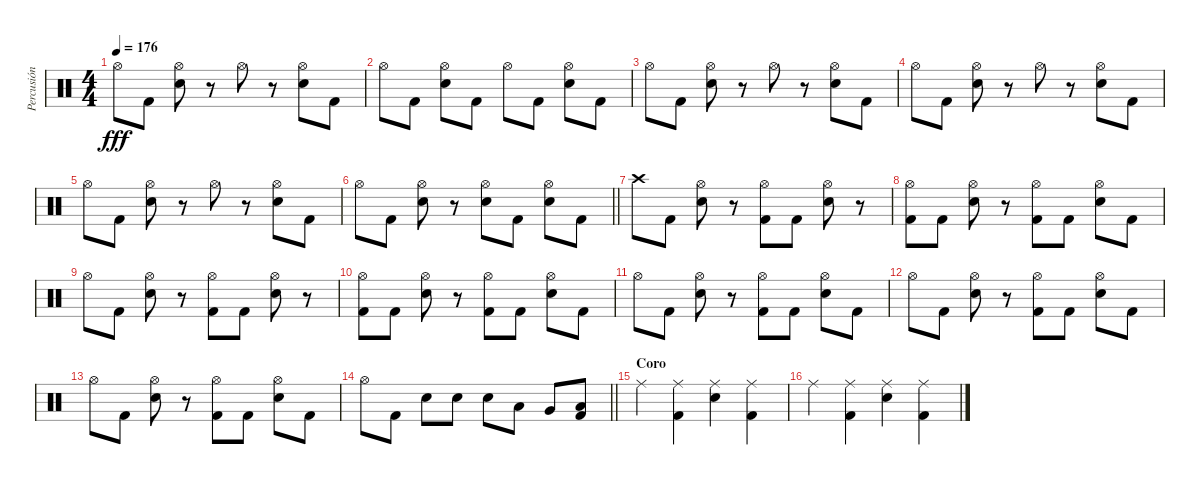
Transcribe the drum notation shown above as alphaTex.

\track ("Percusión" "Percusión") {instrument percussion}
\staff {score}
\articulation defaults
\ts (4 4)
\tempo 176
\clef neutral
\ks c "Hi-Hat (open)".8{dy fff} "Kick (hit) 2".8
("Hi-Hat (open)" "Electric Snare (hit)").8 r.8 "Hi-Hat (open)".8 r.8 ("Hi-Hat (open)" "Electric Snare (hit)").8 "Kick (hit) 2".8 |
"Hi-Hat (open)".8 "Kick (hit) 2".8 ("Hi-Hat (open)" "Electric Snare (hit)").8 "Kick (hit) 2".8 "Hi-Hat (open)".8 "Kick (hit) 2".8 ("Hi-Hat (open)" "Electric Snare (hit)").8 "Kick (hit) 2".8 |
"Hi-Hat (open)".8 "Kick (hit) 2".8 ("Hi-Hat (open)" "Electric Snare (hit)").8 r.8 "Hi-Hat (open)".8 r.8 ("Hi-Hat (open)" "Electric Snare (hit)").8 "Kick (hit) 2".8 |
"Hi-Hat (open)".8 "Kick (hit) 2".8 ("Hi-Hat (open)" "Electric Snare (hit)").8 r.8 "Hi-Hat (open)".8 r.8 ("Hi-Hat (open)" "Electric Snare (hit)").8 "Kick (hit) 2".8 |
"Hi-Hat (open)".8 "Kick (hit) 2".8 ("Hi-Hat (open)" "Electric Snare (hit)").8 r.8 "Hi-Hat (open)".8 r.8 ("Hi-Hat (open)" "Electric Snare (hit)").8 "Kick (hit) 2".8 |
\barLineRight lightlight "Hi-Hat (open)".8 "Kick (hit) 2".8
("Hi-Hat (open)" "Electric Snare (hit)").8 r.8 ("Hi-Hat (open)" "Electric Snare (hit)").8 "Kick (hit) 2".8 ("Hi-Hat (open)" "Electric Snare (hit)").8 "Kick (hit) 2".8 |
"Crash high (hit)".8 "Kick (hit) 2".8 ("Hi-Hat (open)" "Electric Snare (hit)").8 r.8 ("Hi-Hat (open)" "Kick (hit) 2").8 "Kick (hit) 2".8 ("Hi-Hat (open)" "Electric Snare (hit)").8 r.8 |
("Hi-Hat (open)" "Kick (hit) 2").8 "Kick (hit) 2".8 ("Hi-Hat (open)" "Electric Snare (hit)").8 r.8 ("Hi-Hat (open)" "Kick (hit) 2").8 "Kick (hit) 2".8 ("Hi-Hat (open)" "Electric Snare (hit)").8 "Kick (hit) 2".8 |
"Hi-Hat (open)".8 "Kick (hit) 2".8 ("Hi-Hat (open)" "Electric Snare (hit)").8 r.8 ("Hi-Hat (open)" "Kick (hit) 2").8 "Kick (hit) 2".8 ("Hi-Hat (open)" "Electric Snare (hit)").8 r.8 |
("Hi-Hat (open)" "Kick (hit) 2").8 "Kick (hit) 2".8 ("Hi-Hat (open)" "Electric Snare (hit)").8 r.8 ("Hi-Hat (open)" "Kick (hit) 2").8 "Kick (hit) 2".8 ("Hi-Hat (open)" "Electric Snare (hit)").8 "Kick (hit) 2".8 |
"Hi-Hat (open)".8 "Kick (hit) 2".8 ("Hi-Hat (open)" "Electric Snare (hit)").8 r.8 ("Hi-Hat (open)" "Kick (hit) 2").8 "Kick (hit) 2".8 ("Hi-Hat (open)" "Electric Snare (hit)").8 "Kick (hit) 2".8 |
"Hi-Hat (open)".8 "Kick (hit) 2".8 ("Hi-Hat (open)" "Electric Snare (hit)").8 r.8 ("Hi-Hat (open)" "Kick (hit) 2").8 "Kick (hit) 2".8 ("Hi-Hat (open)" "Electric Snare (hit)").8 "Kick (hit) 2".8 |
"Hi-Hat (open)".8 "Kick (hit) 2".8 ("Hi-Hat (open)" "Electric Snare (hit)").8 r.8 ("Hi-Hat (open)" "Kick (hit) 2").8 "Kick (hit) 2".8 ("Hi-Hat (open)" "Electric Snare (hit)").8 "Kick (hit) 2".8 |
\barLineRight lightlight "Hi-Hat (open)".8 "Kick (hit) 2".8 "Electric Snare (hit)".8 "Electric Snare (hit)".8 "Electric Snare (hit)".8 "Low Tom (hit)".8 "Very Low Tom (hit)".8
("Low Floor Tom (hit)" "Kick (hit) 2").8 |
\section ("" "Coro")
"Ride (middle)".4 ("Ride (middle)" "Kick (hit) 2").4 ("Ride (middle)" "Electric Snare (hit)").4 ("Ride (middle)" "Kick (hit) 2").4 |
"Ride (middle)".4 ("Ride (middle)" "Kick (hit) 2").4 ("Ride (middle)" "Electric Snare (hit)").4 ("Ride (middle)" "Kick (hit) 2").4
